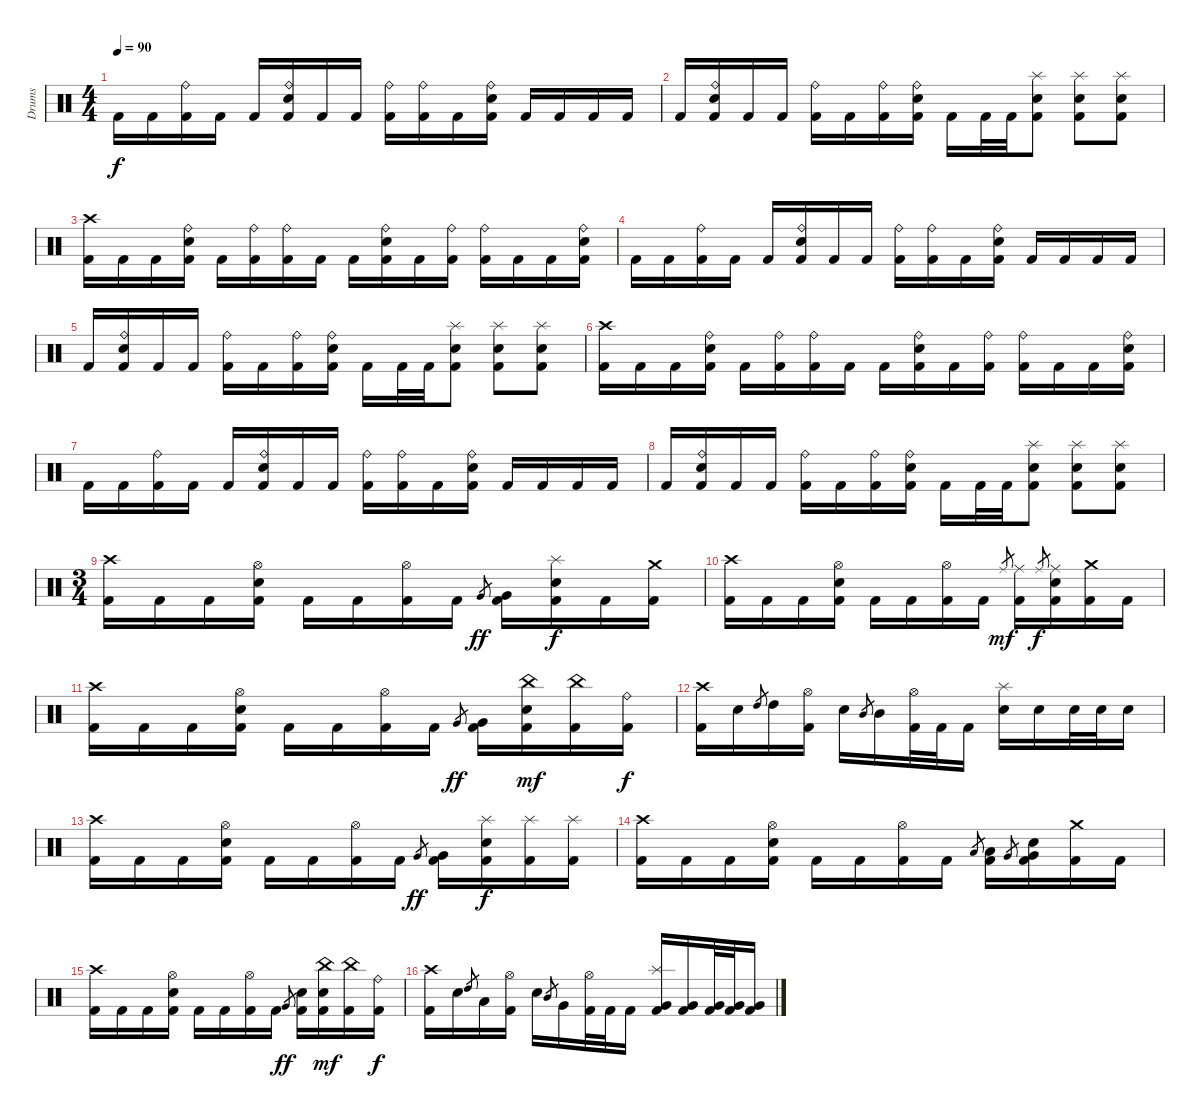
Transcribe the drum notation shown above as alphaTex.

\track ("Drums" "Drums") {instrument percussion}
\staff {score}
\articulation defaults
\ts (4 4)
\tempo 90
\clef neutral
\ks c "Kick (hit) 2".16{dy f} "Kick (hit) 2".16
("Ride (bell)" "Kick (hit) 2").16 "Kick (hit) 2".16 "Kick (hit) 2".16 ("Ride (bell)" "Snare (hit) 2" "Kick (hit) 2").16 "Kick (hit) 2".16 "Kick (hit) 2".16 ("Ride (bell)" "Kick (hit) 2").16 ("Ride (bell)" "Kick (hit) 2").16 "Kick (hit) 2".16 ("Ride (bell)" "Snare (hit) 2" "Kick (hit) 2").16 "Kick (hit) 2".16 "Kick (hit) 2".16 "Kick (hit) 2".16 "Kick (hit) 2".16 |
"Kick (hit) 2".16 ("Ride (bell)" "Snare (hit) 2" "Kick (hit) 2").16 "Kick (hit) 2".16 "Kick (hit) 2".16 ("Ride (bell)" "Kick (hit) 2").16 "Kick (hit) 2".16 ("Ride (bell)" "Kick (hit) 2").16 ("Ride (bell)" "Snare (hit) 2" "Kick (hit) 2").16 "Kick (hit) 2".16 "Kick (hit) 2".32 "Kick (hit) 2".32 ("Splash (hit)" "Snare (hit) 2" "Kick (hit) 2").8 ("Splash (hit)" "Snare (hit) 2" "Kick (hit) 2").8 ("Splash (hit)" "Snare (hit) 2" "Kick (hit) 2").8 |
("Crash high (hit)" "Kick (hit) 2").16 "Kick (hit) 2".16 "Kick (hit) 2".16 ("Ride (bell)" "Snare (hit) 2" "Kick (hit) 2").16 "Kick (hit) 2".16 ("Ride (bell)" "Kick (hit) 2").16 ("Ride (bell)" "Kick (hit) 2").16 "Kick (hit) 2".16 "Kick (hit) 2".16 ("Ride (bell)" "Snare (hit) 2" "Kick (hit) 2").16 "Kick (hit) 2".16 ("Ride (bell)" "Kick (hit) 2").16 ("Ride (bell)" "Kick (hit) 2").16 "Kick (hit) 2".16 "Kick (hit) 2".16 ("Ride (bell)" "Snare (hit) 2" "Kick (hit) 2").16 |
"Kick (hit) 2".16 "Kick (hit) 2".16 ("Ride (bell)" "Kick (hit) 2").16 "Kick (hit) 2".16 "Kick (hit) 2".16 ("Ride (bell)" "Snare (hit) 2" "Kick (hit) 2").16 "Kick (hit) 2".16 "Kick (hit) 2".16 ("Ride (bell)" "Kick (hit) 2").16 ("Ride (bell)" "Kick (hit) 2").16 "Kick (hit) 2".16 ("Ride (bell)" "Snare (hit) 2" "Kick (hit) 2").16 "Kick (hit) 2".16 "Kick (hit) 2".16 "Kick (hit) 2".16 "Kick (hit) 2".16 |
"Kick (hit) 2".16 ("Ride (bell)" "Snare (hit) 2" "Kick (hit) 2").16 "Kick (hit) 2".16 "Kick (hit) 2".16 ("Ride (bell)" "Kick (hit) 2").16 "Kick (hit) 2".16 ("Ride (bell)" "Kick (hit) 2").16 ("Ride (bell)" "Snare (hit) 2" "Kick (hit) 2").16 "Kick (hit) 2".16 "Kick (hit) 2".32 "Kick (hit) 2".32 ("Splash (hit)" "Snare (hit) 2" "Kick (hit) 2").8 ("Splash (hit)" "Snare (hit) 2" "Kick (hit) 2").8 ("Splash (hit)" "Snare (hit) 2" "Kick (hit) 2").8 |
("Crash high (hit)" "Kick (hit) 2").16 "Kick (hit) 2".16 "Kick (hit) 2".16 ("Ride (bell)" "Snare (hit) 2" "Kick (hit) 2").16 "Kick (hit) 2".16 ("Ride (bell)" "Kick (hit) 2").16 ("Ride (bell)" "Kick (hit) 2").16 "Kick (hit) 2".16 "Kick (hit) 2".16 ("Ride (bell)" "Snare (hit) 2" "Kick (hit) 2").16 "Kick (hit) 2".16 ("Ride (bell)" "Kick (hit) 2").16 ("Ride (bell)" "Kick (hit) 2").16 "Kick (hit) 2".16 "Kick (hit) 2".16 ("Ride (bell)" "Snare (hit) 2" "Kick (hit) 2").16 |
"Kick (hit) 2".16 "Kick (hit) 2".16 ("Ride (bell)" "Kick (hit) 2").16 "Kick (hit) 2".16 "Kick (hit) 2".16 ("Ride (bell)" "Snare (hit) 2" "Kick (hit) 2").16 "Kick (hit) 2".16 "Kick (hit) 2".16 ("Ride (bell)" "Kick (hit) 2").16 ("Ride (bell)" "Kick (hit) 2").16 "Kick (hit) 2".16 ("Ride (bell)" "Snare (hit) 2" "Kick (hit) 2").16 "Kick (hit) 2".16 "Kick (hit) 2".16 "Kick (hit) 2".16 "Kick (hit) 2".16 |
"Kick (hit) 2".16 ("Ride (bell)" "Snare (hit) 2" "Kick (hit) 2").16 "Kick (hit) 2".16 "Kick (hit) 2".16 ("Ride (bell)" "Kick (hit) 2").16 "Kick (hit) 2".16 ("Ride (bell)" "Kick (hit) 2").16 ("Ride (bell)" "Snare (hit) 2" "Kick (hit) 2").16 "Kick (hit) 2".16 "Kick (hit) 2".32 "Kick (hit) 2".32 ("Splash (hit)" "Snare (hit) 2" "Kick (hit) 2").8 ("Splash (hit)" "Snare (hit) 2" "Kick (hit) 2").8 ("Splash (hit)" "Snare (hit) 2" "Kick (hit) 2").8 |
\ts (3 4)
("Crash high (hit)" "Kick (hit) 2").16 "Kick (hit) 2".16 "Kick (hit) 2".16 ("Hi-Hat (open)" "Snare (hit) 2" "Kick (hit) 2").16 "Kick (hit) 2".16 "Kick (hit) 2".16 ("Hi-Hat (open)" "Kick (hit) 2").16 "Kick (hit) 2".16 "Very Low Tom (hit)".8{gr dy ff} ("Very Low Tom (hit)" "Kick (hit) 2").16 ("Splash (hit)" "Snare (hit) 2" "Kick (hit) 2").16{dy f} "Kick (hit) 2".16 ("Crash medium (hit)" "Kick (hit) 2").16 |
("Crash high (hit)" "Kick (hit) 2").16 "Kick (hit) 2".16 "Kick (hit) 2".16 ("Hi-Hat (open)" "Snare (hit) 2" "Kick (hit) 2").16 "Kick (hit) 2".16 "Kick (hit) 2".16 ("Hi-Hat (open)" "Kick (hit) 2").16 "Kick (hit) 2".16 "Ride (middle)".8{gr dy mf} ("Ride (middle)" "Kick (hit) 2").16 "Ride (middle)".8{gr dy f} ("Ride (middle)" "Snare (hit) 2" "Kick (hit) 2").16 ("Crash medium (hit)" "Kick (hit) 2").16 "Kick (hit) 2".16 |
("Crash high (hit)" "Kick (hit) 2").16 "Kick (hit) 2".16 "Kick (hit) 2".16 ("Hi-Hat (open)" "Snare (hit) 2" "Kick (hit) 2").16 "Kick (hit) 2".16 "Kick (hit) 2".16 ("Hi-Hat (open)" "Kick (hit) 2").16 "Kick (hit) 2".16 "Very Low Tom (hit)".8{gr dy ff} ("Very Low Tom (hit)" "Kick (hit) 2").16 ("China (hit)" "Snare (hit) 2" "Kick (hit) 2").16{dy mf} ("China (hit)" "Kick (hit) 2").16 ("Ride (bell)" "Kick (hit) 2").16{dy f} |
("Crash high (hit)" "Kick (hit) 2").16 "Snare (hit) 2".16 "High Tom (hit)".8{gr} "High Tom (hit)".16 ("Hi-Hat (open)" "Kick (hit) 2").16 "Snare (hit) 2".16 "Mid Tom (hit)".8{gr} "Mid Tom (hit)".16 ("Hi-Hat (open)" "Kick (hit) 2").32 "Kick (hit) 2".32 "Kick (hit) 2".16 ("Splash (hit)" "Snare (hit) 2").16 "Snare (hit) 2".16 "Snare (hit) 2".32 "Snare (hit) 2".32 "Snare (hit) 2".16 |
("Crash high (hit)" "Kick (hit) 2").16 "Kick (hit) 2".16 "Kick (hit) 2".16 ("Hi-Hat (open)" "Snare (hit) 2" "Kick (hit) 2").16 "Kick (hit) 2".16 "Kick (hit) 2".16 ("Hi-Hat (open)" "Kick (hit) 2").16 "Kick (hit) 2".16 "Very Low Tom (hit)".8{gr dy ff} ("Very Low Tom (hit)" "Kick (hit) 2").16 ("Splash (hit)" "Snare (hit) 2" "Kick (hit) 2").16{dy f} ("Splash (hit)" "Kick (hit) 2").16 ("Splash (hit)" "Kick (hit) 2").16 |
("Crash high (hit)" "Kick (hit) 2").16 "Kick (hit) 2".16 "Kick (hit) 2".16 ("Hi-Hat (open)" "Snare (hit) 2" "Kick (hit) 2").16 "Kick (hit) 2".16 "Kick (hit) 2".16 ("Hi-Hat (open)" "Kick (hit) 2").16 "Kick (hit) 2".16 "Low Tom (hit)".8{gr} ("Low Tom (hit)" "Kick (hit) 2").16 "Very Low Tom (hit)".8{gr} ("Very Low Tom (hit)" "Snare (hit) 2" "Kick (hit) 2").16 ("Crash medium (hit)" "Kick (hit) 2").16 "Kick (hit) 2".16 |
("Crash high (hit)" "Kick (hit) 2").16 "Kick (hit) 2".16 "Kick (hit) 2".16 ("Hi-Hat (open)" "Snare (hit) 2" "Kick (hit) 2").16 "Kick (hit) 2".16 "Kick (hit) 2".16 ("Hi-Hat (open)" "Kick (hit) 2").16 "Kick (hit) 2".16 "Very Low Tom (hit)".8{gr dy ff} ("Snare (hit) 2" "Kick (hit) 2").16 ("China (hit)" "Snare (hit) 2" "Kick (hit) 2").16{dy mf} ("China (hit)" "Kick (hit) 2").16 ("Ride (bell)" "Kick (hit) 2").16{dy f} |
("Crash high (hit)" "Kick (hit) 2").16 "Snare (hit) 2".16 "High Tom (hit)".8{gr} "Low Tom (hit)".16 ("Hi-Hat (open)" "Kick (hit) 2").16 "Snare (hit) 2".16 "Mid Tom (hit)".8{gr} "Very Low Tom (hit)".16 ("Hi-Hat (open)" "Kick (hit) 2").32 "Kick (hit) 2".32 "Kick (hit) 2".16 ("Splash (hit)" "Very Low Tom (hit)" "Kick (hit) 2").16 ("Very Low Tom (hit)" "Kick (hit) 2").16 ("Very Low Tom (hit)" "Kick (hit) 2").32 ("Very Low Tom (hit)" "Kick (hit) 2").32 ("Very Low Tom (hit)" "Kick (hit) 2").16
